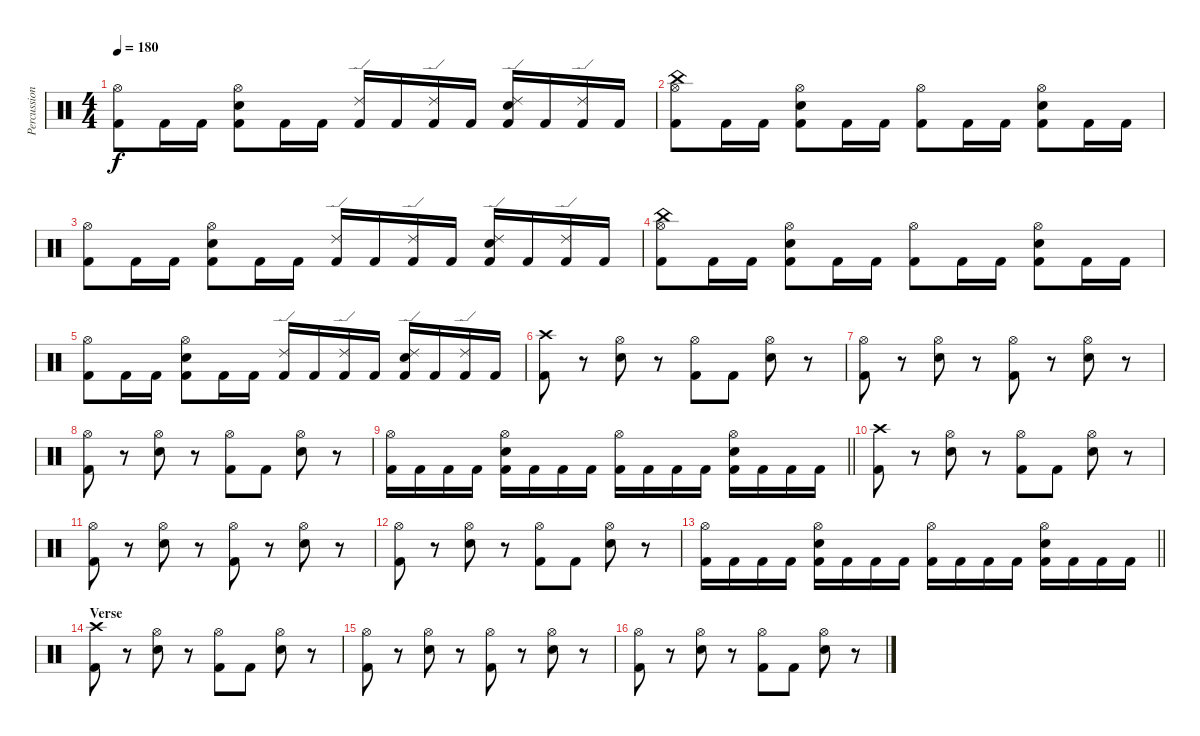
\track ("Percussion" "Percussion") {instrument percussion}
\staff {score}
\articulation defaults
\ts (4 4)
\tempo 180
\clef neutral
\ks c
("Hi-Hat (open)" "Kick (hit) 2").8{dy f} "Kick (hit) 2".16 "Kick (hit) 2".16 ("Hi-Hat (open)" "Snare (hit) 2" "Kick (hit) 2").8 "Kick (hit) 2".16 "Kick (hit) 2".16 ("Ride (edge) 2" "Kick (hit) 2").16 "Kick (hit) 2".16 ("Ride (edge) 2" "Kick (hit) 2").16 "Kick (hit) 2".16 ("Ride (edge) 2" "Snare (hit) 2" "Kick (hit) 2").16 "Kick (hit) 2".16 ("Ride (edge) 2" "Kick (hit) 2").16 "Kick (hit) 2".16 |
("China (hit)" "Hi-Hat (open)" "Kick (hit) 2").8 "Kick (hit) 2".16 "Kick (hit) 2".16 ("Hi-Hat (open)" "Snare (hit) 2" "Kick (hit) 2").8 "Kick (hit) 2".16 "Kick (hit) 2".16 ("Hi-Hat (open)" "Kick (hit) 2").8 "Kick (hit) 2".16 "Kick (hit) 2".16 ("Hi-Hat (open)" "Snare (hit) 2" "Kick (hit) 2").8 "Kick (hit) 2".16 "Kick (hit) 2".16 |
("Hi-Hat (open)" "Kick (hit) 2").8 "Kick (hit) 2".16 "Kick (hit) 2".16 ("Hi-Hat (open)" "Snare (hit) 2" "Kick (hit) 2").8 "Kick (hit) 2".16 "Kick (hit) 2".16 ("Ride (edge) 2" "Kick (hit) 2").16 "Kick (hit) 2".16 ("Ride (edge) 2" "Kick (hit) 2").16 "Kick (hit) 2".16 ("Ride (edge) 2" "Snare (hit) 2" "Kick (hit) 2").16 "Kick (hit) 2".16 ("Ride (edge) 2" "Kick (hit) 2").16 "Kick (hit) 2".16 |
("China (hit)" "Hi-Hat (open)" "Kick (hit) 2").8 "Kick (hit) 2".16 "Kick (hit) 2".16 ("Hi-Hat (open)" "Snare (hit) 2" "Kick (hit) 2").8 "Kick (hit) 2".16 "Kick (hit) 2".16 ("Hi-Hat (open)" "Kick (hit) 2").8 "Kick (hit) 2".16 "Kick (hit) 2".16 ("Hi-Hat (open)" "Snare (hit) 2" "Kick (hit) 2").8 "Kick (hit) 2".16 "Kick (hit) 2".16 |
("Hi-Hat (open)" "Kick (hit) 2").8 "Kick (hit) 2".16 "Kick (hit) 2".16 ("Hi-Hat (open)" "Snare (hit) 2" "Kick (hit) 2").8 "Kick (hit) 2".16 "Kick (hit) 2".16 ("Ride (edge) 2" "Kick (hit) 2").16 "Kick (hit) 2".16 ("Ride (edge) 2" "Kick (hit) 2").16 "Kick (hit) 2".16 ("Ride (edge) 2" "Snare (hit) 2" "Kick (hit) 2").16 "Kick (hit) 2".16 ("Ride (edge) 2" "Kick (hit) 2").16 "Kick (hit) 2".16 |
("Crash high (hit)" "Kick (hit) 2").8 r.8 ("Hi-Hat (open)" "Snare (hit) 2").8 r.8 ("Hi-Hat (open)" "Kick (hit) 2").8 "Kick (hit) 2".8 ("Hi-Hat (open)" "Snare (hit) 2").8 r.8 |
("Hi-Hat (open)" "Kick (hit) 2").8 r.8 ("Hi-Hat (open)" "Snare (hit) 2").8 r.8 ("Hi-Hat (open)" "Kick (hit) 2").8 r.8 ("Hi-Hat (open)" "Snare (hit) 2").8 r.8 |
("Hi-Hat (open)" "Kick (hit) 2").8 r.8 ("Hi-Hat (open)" "Snare (hit) 2").8 r.8 ("Hi-Hat (open)" "Kick (hit) 2").8 "Kick (hit) 2".8 ("Hi-Hat (open)" "Snare (hit) 2").8 r.8 |
\barLineRight lightlight
("Hi-Hat (open)" "Kick (hit) 2").16 "Kick (hit) 2".16 "Kick (hit) 2".16 "Kick (hit) 2".16 ("Hi-Hat (open)" "Snare (hit) 2" "Kick (hit) 2").16 "Kick (hit) 2".16 "Kick (hit) 2".16 "Kick (hit) 2".16 ("Hi-Hat (open)" "Kick (hit) 2").16 "Kick (hit) 2".16 "Kick (hit) 2".16 "Kick (hit) 2".16 ("Hi-Hat (open)" "Snare (hit) 2" "Kick (hit) 2").16 "Kick (hit) 2".16 "Kick (hit) 2".16 "Kick (hit) 2".16 |
("Crash high (hit)" "Kick (hit) 2").8 r.8 ("Hi-Hat (open)" "Snare (hit) 2").8 r.8 ("Hi-Hat (open)" "Kick (hit) 2").8 "Kick (hit) 2".8 ("Hi-Hat (open)" "Snare (hit) 2").8 r.8 |
("Hi-Hat (open)" "Kick (hit) 2").8 r.8 ("Hi-Hat (open)" "Snare (hit) 2").8 r.8 ("Hi-Hat (open)" "Kick (hit) 2").8 r.8 ("Hi-Hat (open)" "Snare (hit) 2").8 r.8 |
("Hi-Hat (open)" "Kick (hit) 2").8 r.8 ("Hi-Hat (open)" "Snare (hit) 2").8 r.8 ("Hi-Hat (open)" "Kick (hit) 2").8 "Kick (hit) 2".8 ("Hi-Hat (open)" "Snare (hit) 2").8 r.8 |
\barLineRight lightlight
("Hi-Hat (open)" "Kick (hit) 2").16 "Kick (hit) 2".16 "Kick (hit) 2".16 "Kick (hit) 2".16 ("Hi-Hat (open)" "Snare (hit) 2" "Kick (hit) 2").16 "Kick (hit) 2".16 "Kick (hit) 2".16 "Kick (hit) 2".16 ("Hi-Hat (open)" "Kick (hit) 2").16 "Kick (hit) 2".16 "Kick (hit) 2".16 "Kick (hit) 2".16 ("Hi-Hat (open)" "Snare (hit) 2" "Kick (hit) 2").16 "Kick (hit) 2".16 "Kick (hit) 2".16 "Kick (hit) 2".16 |
\section ("" "Verse")
("Crash high (hit)" "Kick (hit) 2").8 r.8 ("Hi-Hat (open)" "Snare (hit) 2").8 r.8 ("Hi-Hat (open)" "Kick (hit) 2").8 "Kick (hit) 2".8 ("Hi-Hat (open)" "Snare (hit) 2").8 r.8 |
("Hi-Hat (open)" "Kick (hit) 2").8 r.8 ("Hi-Hat (open)" "Snare (hit) 2").8 r.8 ("Hi-Hat (open)" "Kick (hit) 2").8 r.8 ("Hi-Hat (open)" "Snare (hit) 2").8 r.8 |
("Hi-Hat (open)" "Kick (hit) 2").8 r.8 ("Hi-Hat (open)" "Snare (hit) 2").8 r.8 ("Hi-Hat (open)" "Kick (hit) 2").8 "Kick (hit) 2".8 ("Hi-Hat (open)" "Snare (hit) 2").8 r.8
